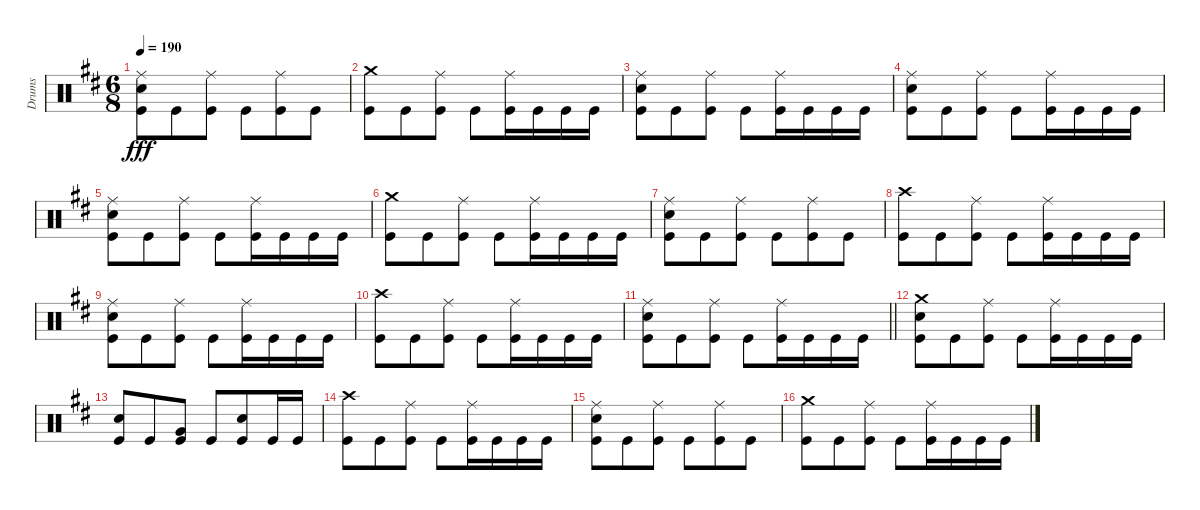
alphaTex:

\track ("Drums" "Drums") {instrument percussion}
\staff {score}
\articulation defaults
\ts (6 8)
\tempo 190
\clef neutral
\ks bminor
("Ride (middle)" "Snare (hit) 2" "Kick (hit)").8{dy fff} "Kick (hit)".8 ("Ride (middle)" "Kick (hit)").8 "Kick (hit)".8 ("Ride (middle)" "Kick (hit)").8 "Kick (hit)".8 |
("Crash medium (hit)" "Kick (hit)").8 "Kick (hit)".8 ("Ride (middle)" "Kick (hit)").8 "Kick (hit)".8 ("Ride (middle)" "Kick (hit)").16 "Kick (hit)".16 "Kick (hit)".16 "Kick (hit)".16 |
("Ride (middle)" "Snare (hit) 2" "Kick (hit)").8 "Kick (hit)".8 ("Ride (middle)" "Kick (hit)").8 "Kick (hit)".8 ("Ride (middle)" "Kick (hit)").16 "Kick (hit)".16 "Kick (hit)".16 "Kick (hit)".16 |
("Ride (middle)" "Snare (hit) 2" "Kick (hit)").8 "Kick (hit)".8 ("Ride (middle)" "Kick (hit)").8 "Kick (hit)".8 ("Ride (middle)" "Kick (hit)").16 "Kick (hit)".16 "Kick (hit)".16 "Kick (hit)".16 |
("Ride (middle)" "Snare (hit) 2" "Kick (hit)").8 "Kick (hit)".8 ("Ride (middle)" "Kick (hit)").8 "Kick (hit)".8 ("Ride (middle)" "Kick (hit)").16 "Kick (hit)".16 "Kick (hit)".16 "Kick (hit)".16 |
("Crash medium (hit)" "Kick (hit)").8 "Kick (hit)".8 ("Ride (middle)" "Kick (hit)").8 "Kick (hit)".8 ("Ride (middle)" "Kick (hit)").16 "Kick (hit)".16 "Kick (hit)".16 "Kick (hit)".16 |
("Ride (middle)" "Snare (hit) 2" "Kick (hit)").8 "Kick (hit)".8 ("Ride (middle)" "Kick (hit)").8 "Kick (hit)".8 ("Ride (middle)" "Kick (hit)").8 "Kick (hit)".8 |
("Crash high (hit)" "Kick (hit)").8 "Kick (hit)".8 ("Ride (middle)" "Kick (hit)").8 "Kick (hit)".8 ("Ride (middle)" "Kick (hit)").16 "Kick (hit)".16 "Kick (hit)".16 "Kick (hit)".16 |
("Ride (middle)" "Snare (hit) 2" "Kick (hit)").8 "Kick (hit)".8 ("Ride (middle)" "Kick (hit)").8 "Kick (hit)".8 ("Ride (middle)" "Kick (hit)").16 "Kick (hit)".16 "Kick (hit)".16 "Kick (hit)".16 |
("Crash high (hit)" "Kick (hit)").8 "Kick (hit)".8 ("Ride (middle)" "Kick (hit)").8 "Kick (hit)".8 ("Ride (middle)" "Kick (hit)").16 "Kick (hit)".16 "Kick (hit)".16 "Kick (hit)".16 |
\barLineRight lightlight
("Ride (middle)" "Snare (hit) 2" "Kick (hit)").8 "Kick (hit)".8 ("Ride (middle)" "Kick (hit)").8 "Kick (hit)".8 ("Ride (middle)" "Kick (hit)").16 "Kick (hit)".16 "Kick (hit)".16 "Kick (hit)".16 |
("Crash medium (hit)" "Snare (hit) 2" "Kick (hit)").8 "Kick (hit)".8 ("Ride (middle)" "Kick (hit)").8 "Kick (hit)".8 ("Ride (middle)" "Kick (hit)").16 "Kick (hit)".16 "Kick (hit)".16 "Kick (hit)".16 |
("Snare (hit) 2" "Kick (hit)").8 "Kick (hit)".8 ("Very Low Tom (hit)" "Kick (hit)").8 "Kick (hit)".8 ("Snare (hit) 2" "Kick (hit)").8 "Kick (hit)".16 "Kick (hit)".16 |
("Crash high (hit)" "Kick (hit)").8 "Kick (hit)".8 ("Ride (middle)" "Kick (hit)").8 "Kick (hit)".8 ("Ride (middle)" "Kick (hit)").16 "Kick (hit)".16 "Kick (hit)".16 "Kick (hit)".16 |
("Ride (middle)" "Snare (hit) 2" "Kick (hit)").8 "Kick (hit)".8 ("Ride (middle)" "Kick (hit)").8 "Kick (hit)".8 ("Ride (middle)" "Kick (hit)").8 "Kick (hit)".8 |
("Crash medium (hit)" "Kick (hit)").8 "Kick (hit)".8 ("Ride (middle)" "Kick (hit)").8 "Kick (hit)".8 ("Ride (middle)" "Kick (hit)").16 "Kick (hit)".16 "Kick (hit)".16 "Kick (hit)".16
